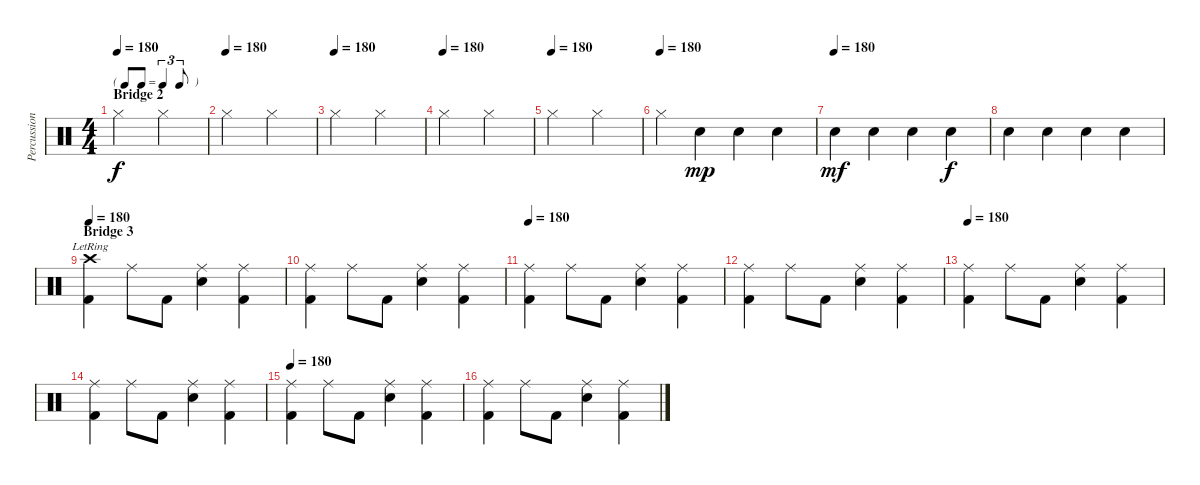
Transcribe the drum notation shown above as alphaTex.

\track ("Percussion" "Percussion") {instrument percussion}
\staff {score}
\articulation defaults
\ts (4 4)
\tf triplet8th
\section ("" "Bridge 2")
\tempo 180
\clef neutral
\ks c "Hi-Hat (closed)".2{dy f} "Hi-Hat (closed)".2
|
\tempo (180)
"Hi-Hat (closed)".2 "Hi-Hat (closed)".2 |
\tempo (180)
"Hi-Hat (closed)".2 "Hi-Hat (closed)".2 |
\tempo (180)
"Hi-Hat (closed)".2 "Hi-Hat (closed)".2 |
\tempo (180)
"Hi-Hat (closed)".2 "Hi-Hat (closed)".2 |
\tempo (180)
"Hi-Hat (closed)".4 "Electric Snare (hit)".4{dy mp} "Electric Snare (hit)".4 "Electric Snare (hit)".4 |
\tempo (180)
"Electric Snare (hit)".4{dy mf} "Electric Snare (hit)".4 "Electric Snare (hit)".4 "Electric Snare (hit)".4{dy f} |
"Electric Snare (hit)".4 "Electric Snare (hit)".4 "Electric Snare (hit)".4 "Electric Snare (hit)".4 |
\section ("" "Bridge 3")
\tempo 180
("Crash high (hit)"{lr} "Kick (hit) 2").4 "Ride (middle)".8 "Kick (hit) 2".8 ("Ride (middle)" "Electric Snare (hit)").4 ("Ride (middle)" "Kick (hit) 2").4 |
("Ride (middle)" "Kick (hit) 2").4 "Ride (middle)".8 "Kick (hit) 2".8 ("Ride (middle)" "Electric Snare (hit)").4 ("Ride (middle)" "Kick (hit) 2").4 |
\tempo 180
("Ride (middle)" "Kick (hit) 2").4 "Ride (middle)".8 "Kick (hit) 2".8 ("Ride (middle)" "Electric Snare (hit)").4 ("Ride (middle)" "Kick (hit) 2").4 |
("Ride (middle)" "Kick (hit) 2").4 "Ride (middle)".8 "Kick (hit) 2".8 ("Ride (middle)" "Electric Snare (hit)").4 ("Ride (middle)" "Kick (hit) 2").4 |
\tempo 180
("Ride (middle)" "Kick (hit) 2").4 "Ride (middle)".8 "Kick (hit) 2".8 ("Ride (middle)" "Electric Snare (hit)").4 ("Ride (middle)" "Kick (hit) 2").4 |
("Ride (middle)" "Kick (hit) 2").4 "Ride (middle)".8 "Kick (hit) 2".8 ("Ride (middle)" "Electric Snare (hit)").4 ("Ride (middle)" "Kick (hit) 2").4 |
\tempo 180
("Ride (middle)" "Kick (hit) 2").4 "Ride (middle)".8 "Kick (hit) 2".8 ("Ride (middle)" "Electric Snare (hit)").4 ("Ride (middle)" "Kick (hit) 2").4 |
("Ride (middle)" "Kick (hit) 2").4 "Ride (middle)".8 "Kick (hit) 2".8 ("Ride (middle)" "Electric Snare (hit)").4 ("Ride (middle)" "Kick (hit) 2").4
